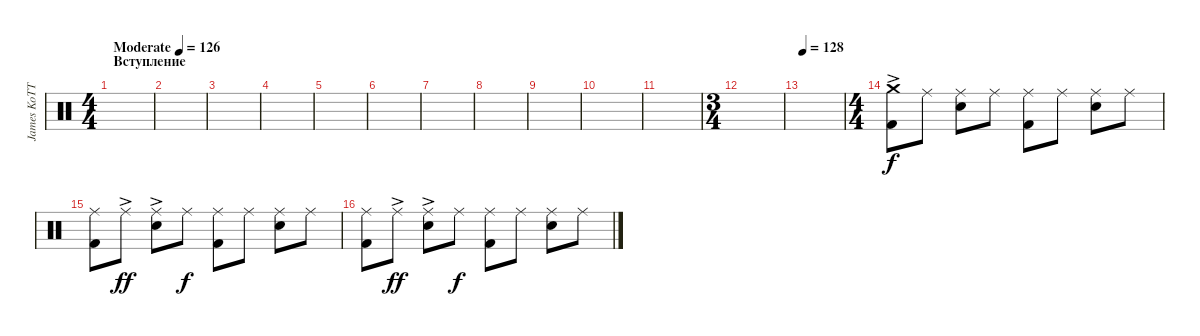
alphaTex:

\track ("James KoTTak" "James KoTT") {instrument percussion}
\staff {score}
\articulation defaults
\ts (4 4)
\section ("" "Вступление")
\tempo (126 "Moderate")
\tempo 103
\tempo 90
\tempo (126 "Moderate")
\clef neutral
\ks c
|
|
|
|
|
|
|
|
|
|
|
\ts (3 4)
|
\tempo 128
|
\ts (4 4)
("Crash medium (hit)"{ac} "Kick (hit) 2").8 "Ride (middle)".8{dy f} ("Ride (middle)" "Snare (hit) 2").8 "Ride (middle)".8 ("Ride (middle)" "Kick (hit) 2").8 "Ride (middle)".8 ("Ride (middle)" "Snare (hit) 2").8 "Ride (middle)".8 |
("Kick (hit) 2" "Ride (middle)").8 "Ride (middle)"{ac}.8{dy ff} ("Ride (middle)"{ac} "Snare (hit) 2").8 "Ride (middle)".8{dy f} ("Ride (middle)" "Kick (hit) 2").8 "Ride (middle)".8 ("Ride (middle)" "Snare (hit) 2").8 "Ride (middle)".8 |
("Kick (hit) 2" "Ride (middle)").8 "Ride (middle)"{ac}.8{dy ff} ("Ride (middle)"{ac} "Snare (hit) 2").8 "Ride (middle)".8{dy f} ("Ride (middle)" "Kick (hit) 2").8 "Ride (middle)".8 ("Ride (middle)" "Snare (hit) 2").8 "Ride (middle)".8
